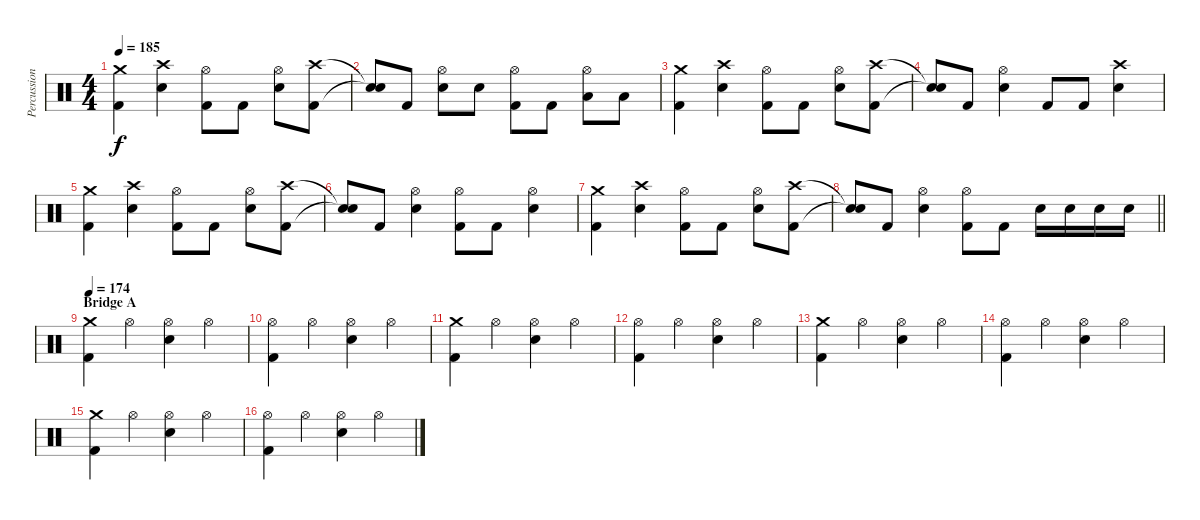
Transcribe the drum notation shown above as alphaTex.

\track ("Percussions" "Percussion") {instrument percussion}
\staff {score}
\articulation defaults
\ts (4 4)
\tempo 185
\clef neutral
\ks c
("Crash medium (hit)" "Kick (hit) 2").4{dy f} ("Crash high (hit)" "Electric Snare (hit)").4 ("Hi-Hat (open)" "Kick (hit) 2").8 "Kick (hit) 2".8 ("Hi-Hat (open)" "Electric Snare (hit)").8 ("Crash high (hit)" "Kick (hit) 2").8 |
("Snare (hit)"{t} "Snare (hit)"{t}).8 "Kick (hit) 2".8 ("Hi-Hat (open)" "Electric Snare (hit)").8 "Electric Snare (hit)".8 ("Hi-Hat (open)" "Kick (hit) 2").8 "Kick (hit) 2".8 ("Hi-Hat (open)" "Low Tom (hit)").8 "Low Tom (hit)".8 |
("Crash medium (hit)" "Kick (hit) 2").4 ("Crash high (hit)" "Electric Snare (hit)").4 ("Hi-Hat (open)" "Kick (hit) 2").8 "Kick (hit) 2".8 ("Hi-Hat (open)" "Electric Snare (hit)").8 ("Crash high (hit)" "Kick (hit) 2").8 |
("Snare (hit)"{t} "Snare (hit)"{t}).8 "Kick (hit) 2".8 ("Hi-Hat (open)" "Electric Snare (hit)").4 "Kick (hit) 2".8 "Kick (hit) 2".8 ("Crash high (hit)" "Electric Snare (hit)").4 |
("Crash medium (hit)" "Kick (hit) 2").4 ("Crash high (hit)" "Electric Snare (hit)").4 ("Hi-Hat (open)" "Kick (hit) 2").8 "Kick (hit) 2".8 ("Hi-Hat (open)" "Electric Snare (hit)").8 ("Crash high (hit)" "Kick (hit) 2").8 |
("Snare (hit)"{t} "Snare (hit)"{t}).8 "Kick (hit) 2".8 ("Hi-Hat (open)" "Electric Snare (hit)").4 ("Hi-Hat (open)" "Kick (hit) 2").8 "Kick (hit) 2".8 ("Hi-Hat (open)" "Electric Snare (hit)").4 |
("Crash medium (hit)" "Kick (hit) 2").4 ("Crash high (hit)" "Electric Snare (hit)").4 ("Hi-Hat (open)" "Kick (hit) 2").8 "Kick (hit) 2".8 ("Hi-Hat (open)" "Electric Snare (hit)").8 ("Crash high (hit)" "Kick (hit) 2").8 |
\barLineRight lightlight
("Snare (hit)"{t} "Snare (hit)"{t}).8 "Kick (hit) 2".8 ("Hi-Hat (open)" "Electric Snare (hit)").4 ("Hi-Hat (open)" "Kick (hit) 2").8 "Kick (hit) 2".8 "Electric Snare (hit)".16 "Electric Snare (hit)".16 "Electric Snare (hit)".16 "Electric Snare (hit)".16 |
\section ("" "Bridge A")
\tempo 174
("Crash medium (hit)" "Kick (hit) 2").4 "Hi-Hat (open)".4 ("Hi-Hat (open)" "Electric Snare (hit)").4 "Hi-Hat (open)".4 |
("Hi-Hat (open)" "Kick (hit) 2").4 "Hi-Hat (open)".4 ("Hi-Hat (open)" "Electric Snare (hit)").4 "Hi-Hat (open)".4 |
("Crash medium (hit)" "Kick (hit) 2").4 "Hi-Hat (open)".4 ("Hi-Hat (open)" "Electric Snare (hit)").4 "Hi-Hat (open)".4 |
("Hi-Hat (open)" "Kick (hit) 2").4 "Hi-Hat (open)".4 ("Hi-Hat (open)" "Electric Snare (hit)").4 "Hi-Hat (open)".4 |
("Crash medium (hit)" "Kick (hit) 2").4 "Hi-Hat (open)".4 ("Hi-Hat (open)" "Electric Snare (hit)").4 "Hi-Hat (open)".4 |
("Hi-Hat (open)" "Kick (hit) 2").4 "Hi-Hat (open)".4 ("Hi-Hat (open)" "Electric Snare (hit)").4 "Hi-Hat (open)".4 |
("Crash medium (hit)" "Kick (hit) 2").4 "Hi-Hat (open)".4 ("Hi-Hat (open)" "Electric Snare (hit)").4 "Hi-Hat (open)".4 |
("Hi-Hat (open)" "Kick (hit) 2").4 "Hi-Hat (open)".4 ("Hi-Hat (open)" "Electric Snare (hit)").4 "Hi-Hat (open)".4
